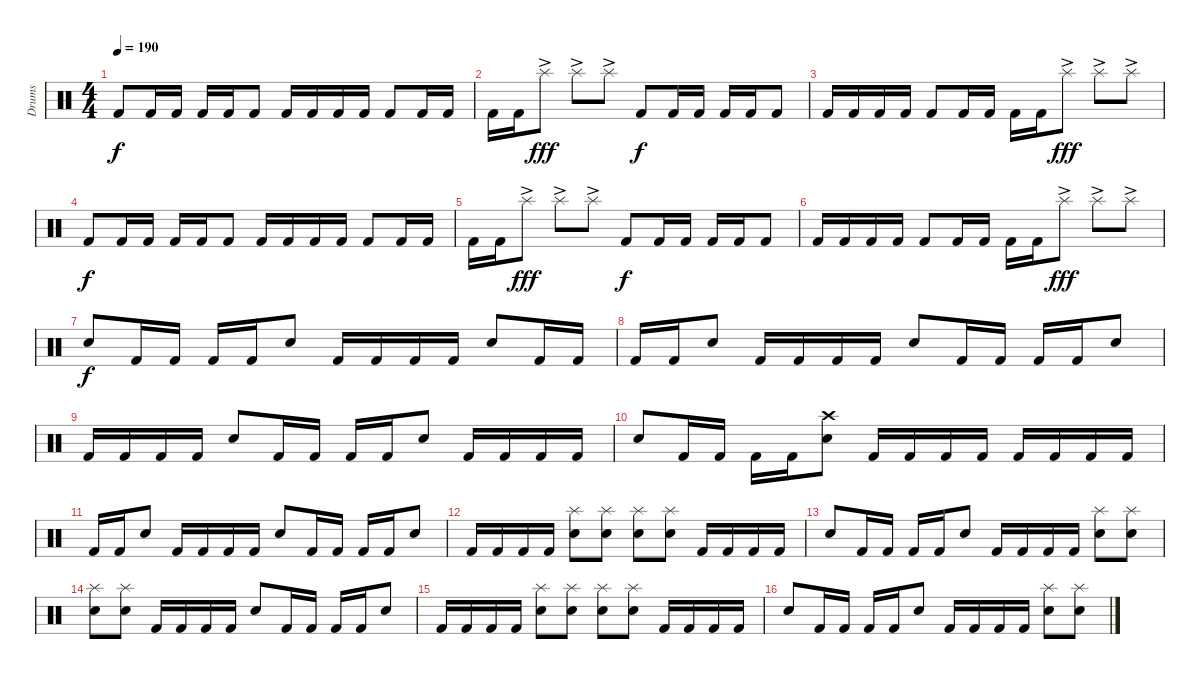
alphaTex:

\track ("Drums" "Drums") {instrument percussion}
\staff {score}
\articulation defaults
\ts (4 4)
\tempo 190
\clef neutral
\ks c "Kick (hit) 2".8{dy f} "Kick (hit) 2".16 "Kick (hit) 2".16 "Kick (hit) 2".16 "Kick (hit) 2".16 "Kick (hit) 2".8 "Kick (hit) 2".16 "Kick (hit) 2".16 "Kick (hit) 2".16 "Kick (hit) 2".16 "Kick (hit) 2".8 "Kick (hit) 2".16 "Kick (hit) 2".16
|
"Kick (hit) 2".16 "Kick (hit) 2".16 "Splash (hit)"{ac}.8{dy fff} "Splash (hit)"{ac}.8 "Splash (hit)"{ac}.8 "Kick (hit) 2".8{dy f} "Kick (hit) 2".16 "Kick (hit) 2".16 "Kick (hit) 2".16 "Kick (hit) 2".16 "Kick (hit) 2".8 |
"Kick (hit) 2".16 "Kick (hit) 2".16 "Kick (hit) 2".16 "Kick (hit) 2".16 "Kick (hit) 2".8 "Kick (hit) 2".16 "Kick (hit) 2".16 "Kick (hit) 2".16 "Kick (hit) 2".16 "Splash (hit)"{ac}.8{dy fff} "Splash (hit)"{ac}.8 "Splash (hit)"{ac}.8 |
"Kick (hit) 2".8{dy f} "Kick (hit) 2".16 "Kick (hit) 2".16 "Kick (hit) 2".16 "Kick (hit) 2".16 "Kick (hit) 2".8 "Kick (hit) 2".16 "Kick (hit) 2".16 "Kick (hit) 2".16 "Kick (hit) 2".16 "Kick (hit) 2".8 "Kick (hit) 2".16 "Kick (hit) 2".16 |
"Kick (hit) 2".16 "Kick (hit) 2".16 "Splash (hit)"{ac}.8{dy fff} "Splash (hit)"{ac}.8 "Splash (hit)"{ac}.8 "Kick (hit) 2".8{dy f} "Kick (hit) 2".16 "Kick (hit) 2".16 "Kick (hit) 2".16 "Kick (hit) 2".16 "Kick (hit) 2".8 |
"Kick (hit) 2".16 "Kick (hit) 2".16 "Kick (hit) 2".16 "Kick (hit) 2".16 "Kick (hit) 2".8 "Kick (hit) 2".16 "Kick (hit) 2".16 "Kick (hit) 2".16 "Kick (hit) 2".16 "Splash (hit)"{ac}.8{dy fff} "Splash (hit)"{ac}.8 "Splash (hit)"{ac}.8 |
"Snare (hit) 2".8{dy f} "Kick (hit) 2".16 "Kick (hit) 2".16 "Kick (hit) 2".16 "Kick (hit) 2".16 "Snare (hit) 2".8 "Kick (hit) 2".16 "Kick (hit) 2".16 "Kick (hit) 2".16 "Kick (hit) 2".16 "Snare (hit) 2".8 "Kick (hit) 2".16 "Kick (hit) 2".16 |
"Kick (hit) 2".16 "Kick (hit) 2".16 "Snare (hit) 2".8 "Kick (hit) 2".16 "Kick (hit) 2".16 "Kick (hit) 2".16 "Kick (hit) 2".16 "Snare (hit) 2".8 "Kick (hit) 2".16 "Kick (hit) 2".16 "Kick (hit) 2".16 "Kick (hit) 2".16 "Snare (hit) 2".8 |
"Kick (hit) 2".16 "Kick (hit) 2".16 "Kick (hit) 2".16 "Kick (hit) 2".16 "Snare (hit) 2".8 "Kick (hit) 2".16 "Kick (hit) 2".16 "Kick (hit) 2".16 "Kick (hit) 2".16 "Snare (hit) 2".8 "Kick (hit) 2".16 "Kick (hit) 2".16 "Kick (hit) 2".16 "Kick (hit) 2".16 |
"Snare (hit) 2".8 "Kick (hit) 2".16 "Kick (hit) 2".16 "Kick (hit) 2".16 "Kick (hit) 2".16 ("Crash high (hit)" "Snare (hit) 2").8 "Kick (hit) 2".16 "Kick (hit) 2".16 "Kick (hit) 2".16 "Kick (hit) 2".16 "Kick (hit) 2".16 "Kick (hit) 2".16 "Kick (hit) 2".16 "Kick (hit) 2".16 |
"Kick (hit) 2".16 "Kick (hit) 2".16 "Snare (hit) 2".8 "Kick (hit) 2".16 "Kick (hit) 2".16 "Kick (hit) 2".16 "Kick (hit) 2".16 "Snare (hit) 2".8 "Kick (hit) 2".16 "Kick (hit) 2".16 "Kick (hit) 2".16 "Kick (hit) 2".16 "Snare (hit) 2".8 |
"Kick (hit) 2".16 "Kick (hit) 2".16 "Kick (hit) 2".16 "Kick (hit) 2".16 ("Splash (hit)" "Snare (hit) 2").8 ("Splash (hit)" "Snare (hit) 2").8 ("Splash (hit)" "Snare (hit) 2").8 ("Splash (hit)" "Snare (hit) 2").8 "Kick (hit) 2".16 "Kick (hit) 2".16 "Kick (hit) 2".16 "Kick (hit) 2".16 |
"Snare (hit) 2".8 "Kick (hit) 2".16 "Kick (hit) 2".16 "Kick (hit) 2".16 "Kick (hit) 2".16 "Snare (hit) 2".8 "Kick (hit) 2".16 "Kick (hit) 2".16 "Kick (hit) 2".16 "Kick (hit) 2".16 ("Splash (hit)" "Snare (hit) 2").8 ("Splash (hit)" "Snare (hit) 2").8 |
("Splash (hit)" "Snare (hit) 2").8 ("Splash (hit)" "Snare (hit) 2").8 "Kick (hit) 2".16 "Kick (hit) 2".16 "Kick (hit) 2".16 "Kick (hit) 2".16 "Snare (hit) 2".8 "Kick (hit) 2".16 "Kick (hit) 2".16 "Kick (hit) 2".16 "Kick (hit) 2".16 "Snare (hit) 2".8 |
"Kick (hit) 2".16 "Kick (hit) 2".16 "Kick (hit) 2".16 "Kick (hit) 2".16 ("Splash (hit)" "Snare (hit) 2").8 ("Splash (hit)" "Snare (hit) 2").8 ("Splash (hit)" "Snare (hit) 2").8 ("Splash (hit)" "Snare (hit) 2").8 "Kick (hit) 2".16 "Kick (hit) 2".16 "Kick (hit) 2".16 "Kick (hit) 2".16 |
"Snare (hit) 2".8 "Kick (hit) 2".16 "Kick (hit) 2".16 "Kick (hit) 2".16 "Kick (hit) 2".16 "Snare (hit) 2".8 "Kick (hit) 2".16 "Kick (hit) 2".16 "Kick (hit) 2".16 "Kick (hit) 2".16 ("Splash (hit)" "Snare (hit) 2").8 ("Splash (hit)" "Snare (hit) 2").8
